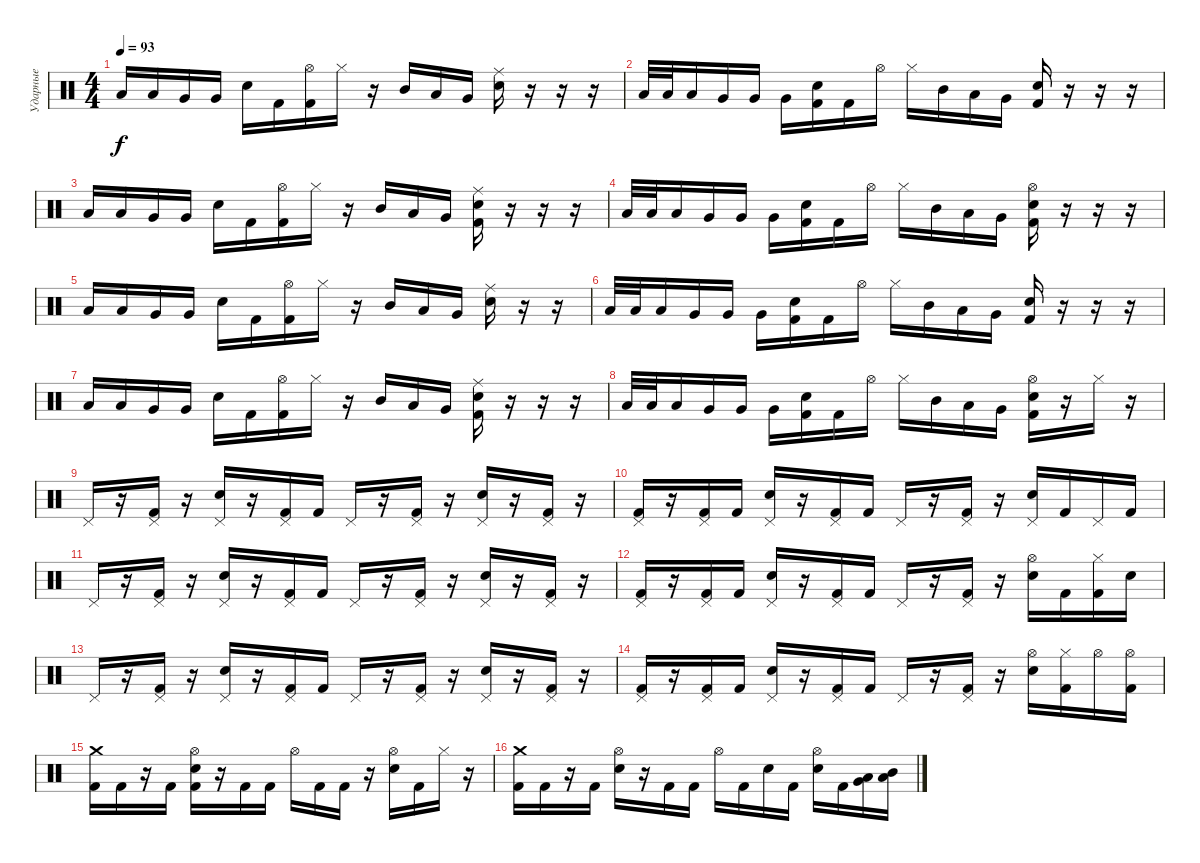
\track ("Ударные" "Ударные") {instrument percussion}
\staff {score}
\articulation defaults
\ts (4 4)
\tempo 93
\clef neutral
\ks c "Low Tom (hit)".16{dy f} "Low Tom (hit)".16 "Very Low Tom (hit)".16 "Very Low Tom (hit)".16 "Electric Snare (hit)".16 "Kick (hit) 2".16
("Hi-Hat (open)" "Kick (hit) 2").16 "Hi-Hat (closed)".16 r.16 "Mid Tom (hit)".16 "Low Tom (hit)".16 "Very Low Tom (hit)".16 ("Ride (middle)" "Electric Snare (hit)").16 r.16 r.16 r.16 |
"Low Tom (hit)".32 "Low Tom (hit)".32 "Low Tom (hit)".16 "Very Low Tom (hit)".16 "Very Low Tom (hit)".16 "Very Low Tom (hit)".16 ("Electric Snare (hit)" "Kick (hit) 2").16 "Kick (hit) 2".16 "Hi-Hat (open)".16 "Hi-Hat (closed)".16 "Mid Tom (hit)".16 "Low Tom (hit)".16 "Very Low Tom (hit)".16 ("Electric Snare (hit)" "Kick (hit) 2").16 r.16 r.16 r.16 |
"Low Tom (hit)".16 "Low Tom (hit)".16 "Very Low Tom (hit)".16 "Very Low Tom (hit)".16 "Electric Snare (hit)".16 "Kick (hit) 2".16 ("Hi-Hat (open)" "Kick (hit) 2").16 "Hi-Hat (closed)".16 r.16 "Mid Tom (hit)".16 "Low Tom (hit)".16 "Very Low Tom (hit)".16 ("Ride (middle)" "Electric Snare (hit)" "Kick (hit) 2").16 r.16 r.16 r.16 |
"Low Tom (hit)".32 "Low Tom (hit)".32 "Low Tom (hit)".16 "Very Low Tom (hit)".16 "Very Low Tom (hit)".16 "Very Low Tom (hit)".16 ("Electric Snare (hit)" "Kick (hit) 2").16 "Kick (hit) 2".16 "Hi-Hat (open)".16 "Hi-Hat (closed)".16 "Mid Tom (hit)".16 "Low Tom (hit)".16 "Very Low Tom (hit)".16 ("Hi-Hat (open)" "Electric Snare (hit)" "Kick (hit) 2").16 r.16 r.16 r.16 |
"Low Tom (hit)".16 "Low Tom (hit)".16 "Very Low Tom (hit)".16 "Very Low Tom (hit)".16 "Electric Snare (hit)".16 "Kick (hit) 2".16 ("Hi-Hat (open)" "Kick (hit) 2").16 "Hi-Hat (closed)".16 r.16 "Mid Tom (hit)".16 "Low Tom (hit)".16 "Very Low Tom (hit)".16 ("Ride (middle)" "Electric Snare (hit)").16 r.16 r.16 |
"Low Tom (hit)".32 "Low Tom (hit)".32 "Low Tom (hit)".16 "Very Low Tom (hit)".16 "Very Low Tom (hit)".16 "Very Low Tom (hit)".16 ("Electric Snare (hit)" "Kick (hit) 2").16 "Kick (hit) 2".16 "Hi-Hat (open)".16 "Hi-Hat (closed)".16 "Mid Tom (hit)".16 "Low Tom (hit)".16 "Very Low Tom (hit)".16 ("Electric Snare (hit)" "Kick (hit) 2").16 r.16 r.16 r.16 |
"Low Tom (hit)".16 "Low Tom (hit)".16 "Very Low Tom (hit)".16 "Very Low Tom (hit)".16 "Electric Snare (hit)".16 "Kick (hit) 2".16 ("Hi-Hat (open)" "Kick (hit) 2").16 "Hi-Hat (closed)".16 r.16 "Mid Tom (hit)".16 "Low Tom (hit)".16 "Very Low Tom (hit)".16 ("Ride (middle)" "Electric Snare (hit)" "Kick (hit) 2").16 r.16 r.16 r.16 |
"Low Tom (hit)".32 "Low Tom (hit)".32 "Low Tom (hit)".16 "Very Low Tom (hit)".16 "Very Low Tom (hit)".16 "Very Low Tom (hit)".16 ("Electric Snare (hit)" "Kick (hit) 2").16 "Kick (hit) 2".16 "Hi-Hat (open)".16 "Hi-Hat (closed)".16 "Mid Tom (hit)".16 "Low Tom (hit)".16 "Very Low Tom (hit)".16 ("Hi-Hat (open)" "Electric Snare (hit)" "Kick (hit) 2").16 r.16 "Hi-Hat (closed)".16 r.16 |
"Pedal Hi-Hat (hit)".16 r.16 ("Pedal Hi-Hat (hit)" "Kick (hit) 2").16 r.16 ("Pedal Hi-Hat (hit)" "Electric Snare (hit)").16 r.16 ("Pedal Hi-Hat (hit)" "Kick (hit) 2").16 "Kick (hit) 2".16 "Pedal Hi-Hat (hit)".16 r.16 ("Pedal Hi-Hat (hit)" "Kick (hit) 2").16 r.16 ("Pedal Hi-Hat (hit)" "Electric Snare (hit)").16 r.16 ("Pedal Hi-Hat (hit)" "Kick (hit) 2").16 r.16 |
("Pedal Hi-Hat (hit)" "Kick (hit) 2").16 r.16 ("Pedal Hi-Hat (hit)" "Kick (hit) 2").16 "Kick (hit) 2".16 ("Pedal Hi-Hat (hit)" "Electric Snare (hit)").16 r.16 ("Pedal Hi-Hat (hit)" "Kick (hit) 2").16 "Kick (hit) 2".16 "Pedal Hi-Hat (hit)".16 r.16 ("Pedal Hi-Hat (hit)" "Kick (hit) 2").16 r.16 ("Pedal Hi-Hat (hit)" "Electric Snare (hit)").16 "Kick (hit) 2".16 "Pedal Hi-Hat (hit)".16 "Kick (hit) 2".16 |
"Pedal Hi-Hat (hit)".16 r.16 ("Pedal Hi-Hat (hit)" "Kick (hit) 2").16 r.16 ("Pedal Hi-Hat (hit)" "Electric Snare (hit)").16 r.16 ("Pedal Hi-Hat (hit)" "Kick (hit) 2").16 "Kick (hit) 2".16 "Pedal Hi-Hat (hit)".16 r.16 ("Pedal Hi-Hat (hit)" "Kick (hit) 2").16 r.16 ("Pedal Hi-Hat (hit)" "Electric Snare (hit)").16 r.16 ("Pedal Hi-Hat (hit)" "Kick (hit) 2").16 r.16 |
("Pedal Hi-Hat (hit)" "Kick (hit) 2").16 r.16 ("Pedal Hi-Hat (hit)" "Kick (hit) 2").16 "Kick (hit) 2".16 ("Pedal Hi-Hat (hit)" "Electric Snare (hit)").16 r.16 ("Pedal Hi-Hat (hit)" "Kick (hit) 2").16 "Kick (hit) 2".16 "Pedal Hi-Hat (hit)".16 r.16 ("Pedal Hi-Hat (hit)" "Kick (hit) 2").16 r.16 ("Hi-Hat (open)" "Electric Snare (hit)").16 "Kick (hit) 2".16 ("Hi-Hat (closed)" "Kick (hit) 2").16 "Electric Snare (hit)".16 |
"Pedal Hi-Hat (hit)".16 r.16 ("Pedal Hi-Hat (hit)" "Kick (hit) 2").16 r.16 ("Pedal Hi-Hat (hit)" "Electric Snare (hit)").16 r.16 ("Pedal Hi-Hat (hit)" "Kick (hit) 2").16 "Kick (hit) 2".16 "Pedal Hi-Hat (hit)".16 r.16 ("Pedal Hi-Hat (hit)" "Kick (hit) 2").16 r.16 ("Pedal Hi-Hat (hit)" "Electric Snare (hit)").16 r.16 ("Pedal Hi-Hat (hit)" "Kick (hit) 2").16 r.16 |
("Pedal Hi-Hat (hit)" "Kick (hit) 2").16 r.16 ("Pedal Hi-Hat (hit)" "Kick (hit) 2").16 "Kick (hit) 2".16 ("Pedal Hi-Hat (hit)" "Electric Snare (hit)").16 r.16 ("Pedal Hi-Hat (hit)" "Kick (hit) 2").16 "Kick (hit) 2".16 "Pedal Hi-Hat (hit)".16 r.16 ("Pedal Hi-Hat (hit)" "Kick (hit) 2").16 r.16 ("Hi-Hat (open)" "Electric Snare (hit)").16 ("Hi-Hat (closed)" "Kick (hit) 2").16 "Hi-Hat (open)".16 ("Hi-Hat (open)" "Kick (hit) 2").16 |
("Crash medium (hit)" "Kick (hit) 2").16 "Kick (hit) 2".16 r.16 "Kick (hit) 2".16 ("Hi-Hat (open)" "Electric Snare (hit)" "Kick (hit) 2").16 r.16 "Kick (hit) 2".16 "Kick (hit) 2".16 "Hi-Hat (open)".16 "Kick (hit) 2".16 "Kick (hit) 2".16 r.16 ("Hi-Hat (open)" "Electric Snare (hit)").16 "Kick (hit) 2".16 "Hi-Hat (closed)".16 r.16 |
("Crash medium (hit)" "Kick (hit) 2").16 "Kick (hit) 2".16 r.16 "Kick (hit) 2".16 ("Hi-Hat (open)" "Electric Snare (hit)").16 r.16 "Kick (hit) 2".16 "Kick (hit) 2".16 "Hi-Hat (open)".16 "Kick (hit) 2".16 "Electric Snare (hit)".16 "Kick (hit) 2".16 ("Hi-Hat (open)" "Electric Snare (hit)").16 "Kick (hit) 2".16 ("Very Low Tom (hit)" "Low Tom (hit)").16 ("Low Tom (hit)" "Mid Tom (hit)").16
